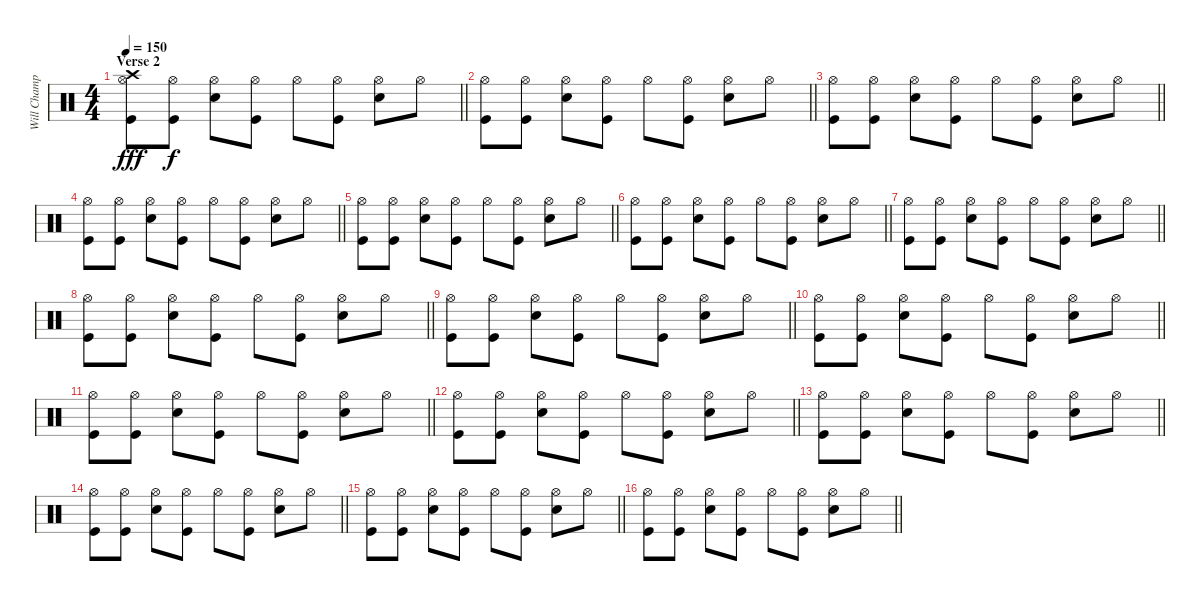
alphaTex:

\track ("Will Champion" "Will Champ") {instrument percussion}
\staff {score}
\articulation defaults
\ts (4 4)
\section ("" "Verse 2")
\tempo 150
\clef neutral
\barLineRight lightlight
\ks c
("Kick (hit)" "Hi-Hat (open)" "Crash high (hit)").8{dy fff} ("Kick (hit)" "Hi-Hat (open)").8{dy f} ("Snare (hit) 2" "Hi-Hat (open)").8 ("Kick (hit)" "Hi-Hat (open)").8 "Hi-Hat (open)".8 ("Kick (hit)" "Hi-Hat (open)").8 ("Snare (hit) 2" "Hi-Hat (open)").8 "Hi-Hat (open)".8 |
\barLineRight lightlight
("Kick (hit)" "Hi-Hat (open)").8 ("Kick (hit)" "Hi-Hat (open)").8 ("Snare (hit) 2" "Hi-Hat (open)").8 ("Kick (hit)" "Hi-Hat (open)").8 "Hi-Hat (open)".8 ("Kick (hit)" "Hi-Hat (open)").8 ("Snare (hit) 2" "Hi-Hat (open)").8 "Hi-Hat (open)".8 |
\barLineRight lightlight
("Kick (hit)" "Hi-Hat (open)").8 ("Kick (hit)" "Hi-Hat (open)").8 ("Snare (hit) 2" "Hi-Hat (open)").8 ("Kick (hit)" "Hi-Hat (open)").8 "Hi-Hat (open)".8 ("Kick (hit)" "Hi-Hat (open)").8 ("Snare (hit) 2" "Hi-Hat (open)").8 "Hi-Hat (open)".8 |
\barLineRight lightlight
("Kick (hit)" "Hi-Hat (open)").8 ("Kick (hit)" "Hi-Hat (open)").8 ("Snare (hit) 2" "Hi-Hat (open)").8 ("Kick (hit)" "Hi-Hat (open)").8 "Hi-Hat (open)".8 ("Kick (hit)" "Hi-Hat (open)").8 ("Snare (hit) 2" "Hi-Hat (open)").8 "Hi-Hat (open)".8 |
\barLineRight lightlight
("Kick (hit)" "Hi-Hat (open)").8 ("Kick (hit)" "Hi-Hat (open)").8 ("Snare (hit) 2" "Hi-Hat (open)").8 ("Kick (hit)" "Hi-Hat (open)").8 "Hi-Hat (open)".8 ("Kick (hit)" "Hi-Hat (open)").8 ("Snare (hit) 2" "Hi-Hat (open)").8 "Hi-Hat (open)".8 |
\barLineRight lightlight
("Kick (hit)" "Hi-Hat (open)").8 ("Kick (hit)" "Hi-Hat (open)").8 ("Snare (hit) 2" "Hi-Hat (open)").8 ("Kick (hit)" "Hi-Hat (open)").8 "Hi-Hat (open)".8 ("Kick (hit)" "Hi-Hat (open)").8 ("Snare (hit) 2" "Hi-Hat (open)").8 "Hi-Hat (open)".8 |
\barLineRight lightlight
("Kick (hit)" "Hi-Hat (open)").8 ("Kick (hit)" "Hi-Hat (open)").8 ("Snare (hit) 2" "Hi-Hat (open)").8 ("Kick (hit)" "Hi-Hat (open)").8 "Hi-Hat (open)".8 ("Kick (hit)" "Hi-Hat (open)").8 ("Snare (hit) 2" "Hi-Hat (open)").8 "Hi-Hat (open)".8 |
\barLineRight lightlight
("Kick (hit)" "Hi-Hat (open)").8 ("Kick (hit)" "Hi-Hat (open)").8 ("Snare (hit) 2" "Hi-Hat (open)").8 ("Kick (hit)" "Hi-Hat (open)").8 "Hi-Hat (open)".8 ("Kick (hit)" "Hi-Hat (open)").8 ("Snare (hit) 2" "Hi-Hat (open)").8 "Hi-Hat (open)".8 |
\barLineRight lightlight
("Kick (hit)" "Hi-Hat (open)").8 ("Kick (hit)" "Hi-Hat (open)").8 ("Snare (hit) 2" "Hi-Hat (open)").8 ("Kick (hit)" "Hi-Hat (open)").8 "Hi-Hat (open)".8 ("Kick (hit)" "Hi-Hat (open)").8 ("Snare (hit) 2" "Hi-Hat (open)").8 "Hi-Hat (open)".8 |
\barLineRight lightlight
("Kick (hit)" "Hi-Hat (open)").8 ("Kick (hit)" "Hi-Hat (open)").8 ("Snare (hit) 2" "Hi-Hat (open)").8 ("Kick (hit)" "Hi-Hat (open)").8 "Hi-Hat (open)".8 ("Kick (hit)" "Hi-Hat (open)").8 ("Snare (hit) 2" "Hi-Hat (open)").8 "Hi-Hat (open)".8 |
\barLineRight lightlight
("Kick (hit)" "Hi-Hat (open)").8 ("Kick (hit)" "Hi-Hat (open)").8 ("Snare (hit) 2" "Hi-Hat (open)").8 ("Kick (hit)" "Hi-Hat (open)").8 "Hi-Hat (open)".8 ("Kick (hit)" "Hi-Hat (open)").8 ("Snare (hit) 2" "Hi-Hat (open)").8 "Hi-Hat (open)".8 |
\barLineRight lightlight
("Kick (hit)" "Hi-Hat (open)").8 ("Kick (hit)" "Hi-Hat (open)").8 ("Snare (hit) 2" "Hi-Hat (open)").8 ("Kick (hit)" "Hi-Hat (open)").8 "Hi-Hat (open)".8 ("Kick (hit)" "Hi-Hat (open)").8 ("Snare (hit) 2" "Hi-Hat (open)").8 "Hi-Hat (open)".8 |
\barLineRight lightlight
("Kick (hit)" "Hi-Hat (open)").8 ("Kick (hit)" "Hi-Hat (open)").8 ("Snare (hit) 2" "Hi-Hat (open)").8 ("Kick (hit)" "Hi-Hat (open)").8 "Hi-Hat (open)".8 ("Kick (hit)" "Hi-Hat (open)").8 ("Snare (hit) 2" "Hi-Hat (open)").8 "Hi-Hat (open)".8 |
\barLineRight lightlight
("Kick (hit)" "Hi-Hat (open)").8 ("Kick (hit)" "Hi-Hat (open)").8 ("Snare (hit) 2" "Hi-Hat (open)").8 ("Kick (hit)" "Hi-Hat (open)").8 "Hi-Hat (open)".8 ("Kick (hit)" "Hi-Hat (open)").8 ("Snare (hit) 2" "Hi-Hat (open)").8 "Hi-Hat (open)".8 |
\barLineRight lightlight
("Kick (hit)" "Hi-Hat (open)").8 ("Kick (hit)" "Hi-Hat (open)").8 ("Snare (hit) 2" "Hi-Hat (open)").8 ("Kick (hit)" "Hi-Hat (open)").8 "Hi-Hat (open)".8 ("Kick (hit)" "Hi-Hat (open)").8 ("Snare (hit) 2" "Hi-Hat (open)").8 "Hi-Hat (open)".8 |
\barLineRight lightlight
("Kick (hit)" "Hi-Hat (open)").8 ("Kick (hit)" "Hi-Hat (open)").8 ("Snare (hit) 2" "Hi-Hat (open)").8 ("Kick (hit)" "Hi-Hat (open)").8 "Hi-Hat (open)".8 ("Kick (hit)" "Hi-Hat (open)").8 ("Snare (hit) 2" "Hi-Hat (open)").8 "Hi-Hat (open)".8
